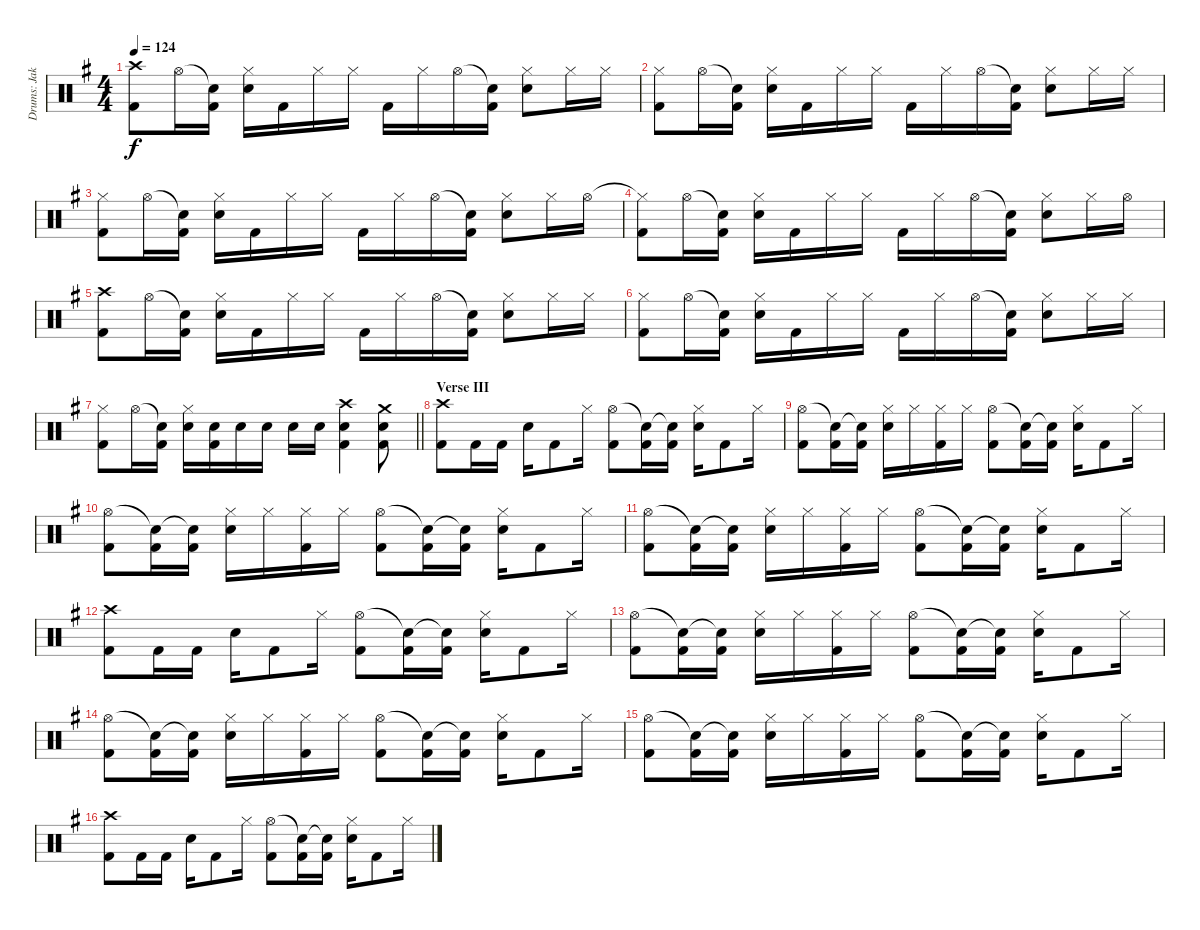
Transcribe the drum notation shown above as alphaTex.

\track ("Drums: Jakson" "Drums: Jak") {instrument percussion}
\staff {score}
\articulation defaults
\ts (4 4)
\tempo 124
\clef neutral
\ks g
("Crash high (hit)" "Kick (hit) 2").8{dy f} "Hi-Hat (open)".16 ("Snare (hit)"{t} "Kick (hit) 2").16 ("Hi-Hat (closed)" "Electric Snare (hit)").16 "Kick (hit) 2".16 "Hi-Hat (closed)".16 "Hi-Hat (closed)".16 "Kick (hit) 2".16 "Hi-Hat (closed)".16 "Hi-Hat (open)".16 ("Snare (hit)"{t} "Kick (hit) 2").16 ("Hi-Hat (closed)" "Electric Snare (hit)").8 "Hi-Hat (closed)".16 "Hi-Hat (closed)".16 |
("Hi-Hat (closed)" "Kick (hit) 2").8 "Hi-Hat (open)".16 ("Snare (hit)"{t} "Kick (hit) 2").16 ("Hi-Hat (closed)" "Electric Snare (hit)").16 "Kick (hit) 2".16 "Hi-Hat (closed)".16 "Hi-Hat (closed)".16 "Kick (hit) 2".16 "Hi-Hat (closed)".16 "Hi-Hat (open)".16 ("Snare (hit)"{t} "Kick (hit) 2").16 ("Hi-Hat (closed)" "Electric Snare (hit)").8 "Hi-Hat (closed)".16 "Hi-Hat (closed)".16 |
("Hi-Hat (closed)" "Kick (hit) 2").8 "Hi-Hat (open)".16 ("Snare (hit)"{t} "Kick (hit) 2").16 ("Hi-Hat (closed)" "Electric Snare (hit)").16 "Kick (hit) 2".16 "Hi-Hat (closed)".16 "Hi-Hat (closed)".16 "Kick (hit) 2".16 "Hi-Hat (closed)".16 "Hi-Hat (open)".16 ("Snare (hit)"{t} "Kick (hit) 2").16 ("Hi-Hat (closed)" "Electric Snare (hit)").8 "Hi-Hat (closed)".16 "Hi-Hat (open)".16 |
("Hi-Hat (closed)"{t} "Kick (hit) 2").8 "Hi-Hat (open)".16 ("Snare (hit)"{t} "Kick (hit) 2").16 ("Hi-Hat (closed)" "Electric Snare (hit)").16 "Kick (hit) 2".16 "Hi-Hat (closed)".16 "Hi-Hat (closed)".16 "Kick (hit) 2".16 "Hi-Hat (closed)".16 "Hi-Hat (open)".16 ("Snare (hit)"{t} "Kick (hit) 2").16 ("Hi-Hat (closed)" "Electric Snare (hit)").8 "Hi-Hat (closed)".16 "Hi-Hat (open)".16 |
("Crash high (hit)" "Kick (hit) 2").8 "Hi-Hat (open)".16 ("Snare (hit)"{t} "Kick (hit) 2").16 ("Hi-Hat (closed)" "Electric Snare (hit)").16 "Kick (hit) 2".16 "Hi-Hat (closed)".16 "Hi-Hat (closed)".16 "Kick (hit) 2".16 "Hi-Hat (closed)".16 "Hi-Hat (open)".16 ("Snare (hit)"{t} "Kick (hit) 2").16 ("Hi-Hat (closed)" "Electric Snare (hit)").8 "Hi-Hat (closed)".16 "Hi-Hat (closed)".16 |
("Hi-Hat (closed)" "Kick (hit) 2").8 "Hi-Hat (open)".16 ("Snare (hit)"{t} "Kick (hit) 2").16 ("Hi-Hat (closed)" "Electric Snare (hit)").16 "Kick (hit) 2".16 "Hi-Hat (closed)".16 "Hi-Hat (closed)".16 "Kick (hit) 2".16 "Hi-Hat (closed)".16 "Hi-Hat (open)".16 ("Snare (hit)"{t} "Kick (hit) 2").16 ("Hi-Hat (closed)" "Electric Snare (hit)").8 "Hi-Hat (closed)".16 "Hi-Hat (closed)".16 |
\barLineRight lightlight
("Hi-Hat (closed)" "Kick (hit) 2").8 "Hi-Hat (open)".16 ("Snare (hit)"{t} "Kick (hit) 2").16 ("Hi-Hat (closed)" "Electric Snare (hit)").16 ("Electric Snare (hit)" "Kick (hit) 2").16 "Electric Snare (hit)".16 "Electric Snare (hit)".16 "Electric Snare (hit)".16 "Electric Snare (hit)".16 ("Crash high (hit)" "Snare (hit) 2" "Kick (hit) 2").4 ("Crash medium (hit)" "Electric Snare (hit)" "Kick (hit) 2").8 |
\section ("" "Verse III")
("Crash high (hit)" "Kick (hit) 2").8 "Kick (hit) 2".16 "Kick (hit) 2".16 "Electric Snare (hit)".16 "Kick (hit) 2".8 "Hi-Hat (closed)".16 ("Hi-Hat (open)" "Kick (hit) 2").8 ("Snare (hit)"{t} "Kick (hit) 2").16 ("Snare (hit)"{t} "Kick (hit) 2").16 ("Hi-Hat (closed)" "Electric Snare (hit)").16 "Kick (hit) 2".8 "Hi-Hat (closed)".16 |
("Hi-Hat (open)" "Kick (hit) 2").8 ("Snare (hit)"{t} "Kick (hit) 2").16 ("Snare (hit)"{t} "Kick (hit) 2").16 ("Hi-Hat (closed)" "Electric Snare (hit)").16 "Hi-Hat (closed)".16 ("Hi-Hat (closed)" "Kick (hit) 2").16 "Hi-Hat (closed)".16 ("Hi-Hat (open)" "Kick (hit) 2").8 ("Snare (hit)"{t} "Kick (hit) 2").16 ("Snare (hit)"{t} "Kick (hit) 2").16 ("Hi-Hat (closed)" "Electric Snare (hit)").16 "Kick (hit) 2".8 "Hi-Hat (closed)".16 |
("Hi-Hat (open)" "Kick (hit) 2").8 ("Snare (hit)"{t} "Kick (hit) 2").16 ("Snare (hit)"{t} "Kick (hit) 2").16 ("Hi-Hat (closed)" "Electric Snare (hit)").16 "Hi-Hat (closed)".16 ("Hi-Hat (closed)" "Kick (hit) 2").16 "Hi-Hat (closed)".16 ("Hi-Hat (open)" "Kick (hit) 2").8 ("Snare (hit)"{t} "Kick (hit) 2").16 ("Snare (hit)"{t} "Kick (hit) 2").16 ("Hi-Hat (closed)" "Electric Snare (hit)").16 "Kick (hit) 2".8 "Hi-Hat (closed)".16 |
("Hi-Hat (open)" "Kick (hit) 2").8 ("Snare (hit)"{t} "Kick (hit) 2").16 ("Snare (hit)"{t} "Kick (hit) 2").16 ("Hi-Hat (closed)" "Electric Snare (hit)").16 "Hi-Hat (closed)".16 ("Hi-Hat (closed)" "Kick (hit) 2").16 "Hi-Hat (closed)".16 ("Hi-Hat (open)" "Kick (hit) 2").8 ("Snare (hit)"{t} "Kick (hit) 2").16 ("Snare (hit)"{t} "Kick (hit) 2").16 ("Hi-Hat (closed)" "Electric Snare (hit)").16 "Kick (hit) 2".8 "Hi-Hat (closed)".16 |
("Crash high (hit)" "Kick (hit) 2").8 "Kick (hit) 2".16 "Kick (hit) 2".16 "Electric Snare (hit)".16 "Kick (hit) 2".8 "Hi-Hat (closed)".16 ("Hi-Hat (open)" "Kick (hit) 2").8 ("Snare (hit)"{t} "Kick (hit) 2").16 ("Snare (hit)"{t} "Kick (hit) 2").16 ("Hi-Hat (closed)" "Electric Snare (hit)").16 "Kick (hit) 2".8 "Hi-Hat (closed)".16 |
("Hi-Hat (open)" "Kick (hit) 2").8 ("Snare (hit)"{t} "Kick (hit) 2").16 ("Snare (hit)"{t} "Kick (hit) 2").16 ("Hi-Hat (closed)" "Electric Snare (hit)").16 "Hi-Hat (closed)".16 ("Hi-Hat (closed)" "Kick (hit) 2").16 "Hi-Hat (closed)".16 ("Hi-Hat (open)" "Kick (hit) 2").8 ("Snare (hit)"{t} "Kick (hit) 2").16 ("Snare (hit)"{t} "Kick (hit) 2").16 ("Hi-Hat (closed)" "Electric Snare (hit)").16 "Kick (hit) 2".8 "Hi-Hat (closed)".16 |
("Hi-Hat (open)" "Kick (hit) 2").8 ("Snare (hit)"{t} "Kick (hit) 2").16 ("Snare (hit)"{t} "Kick (hit) 2").16 ("Hi-Hat (closed)" "Electric Snare (hit)").16 "Hi-Hat (closed)".16 ("Hi-Hat (closed)" "Kick (hit) 2").16 "Hi-Hat (closed)".16 ("Hi-Hat (open)" "Kick (hit) 2").8 ("Snare (hit)"{t} "Kick (hit) 2").16 ("Snare (hit)"{t} "Kick (hit) 2").16 ("Hi-Hat (closed)" "Electric Snare (hit)").16 "Kick (hit) 2".8 "Hi-Hat (closed)".16 |
("Hi-Hat (open)" "Kick (hit) 2").8 ("Snare (hit)"{t} "Kick (hit) 2").16 ("Snare (hit)"{t} "Kick (hit) 2").16 ("Hi-Hat (closed)" "Electric Snare (hit)").16 "Hi-Hat (closed)".16 ("Hi-Hat (closed)" "Kick (hit) 2").16 "Hi-Hat (closed)".16 ("Hi-Hat (open)" "Kick (hit) 2").8 ("Snare (hit)"{t} "Kick (hit) 2").16 ("Snare (hit)"{t} "Kick (hit) 2").16 ("Hi-Hat (closed)" "Electric Snare (hit)").16 "Kick (hit) 2".8 "Hi-Hat (closed)".16 |
("Crash high (hit)" "Kick (hit) 2").8 "Kick (hit) 2".16 "Kick (hit) 2".16 "Electric Snare (hit)".16 "Kick (hit) 2".8 "Hi-Hat (closed)".16 ("Hi-Hat (open)" "Kick (hit) 2").8 ("Snare (hit)"{t} "Kick (hit) 2").16 ("Snare (hit)"{t} "Kick (hit) 2").16 ("Hi-Hat (closed)" "Electric Snare (hit)").16 "Kick (hit) 2".8 "Hi-Hat (closed)".16
